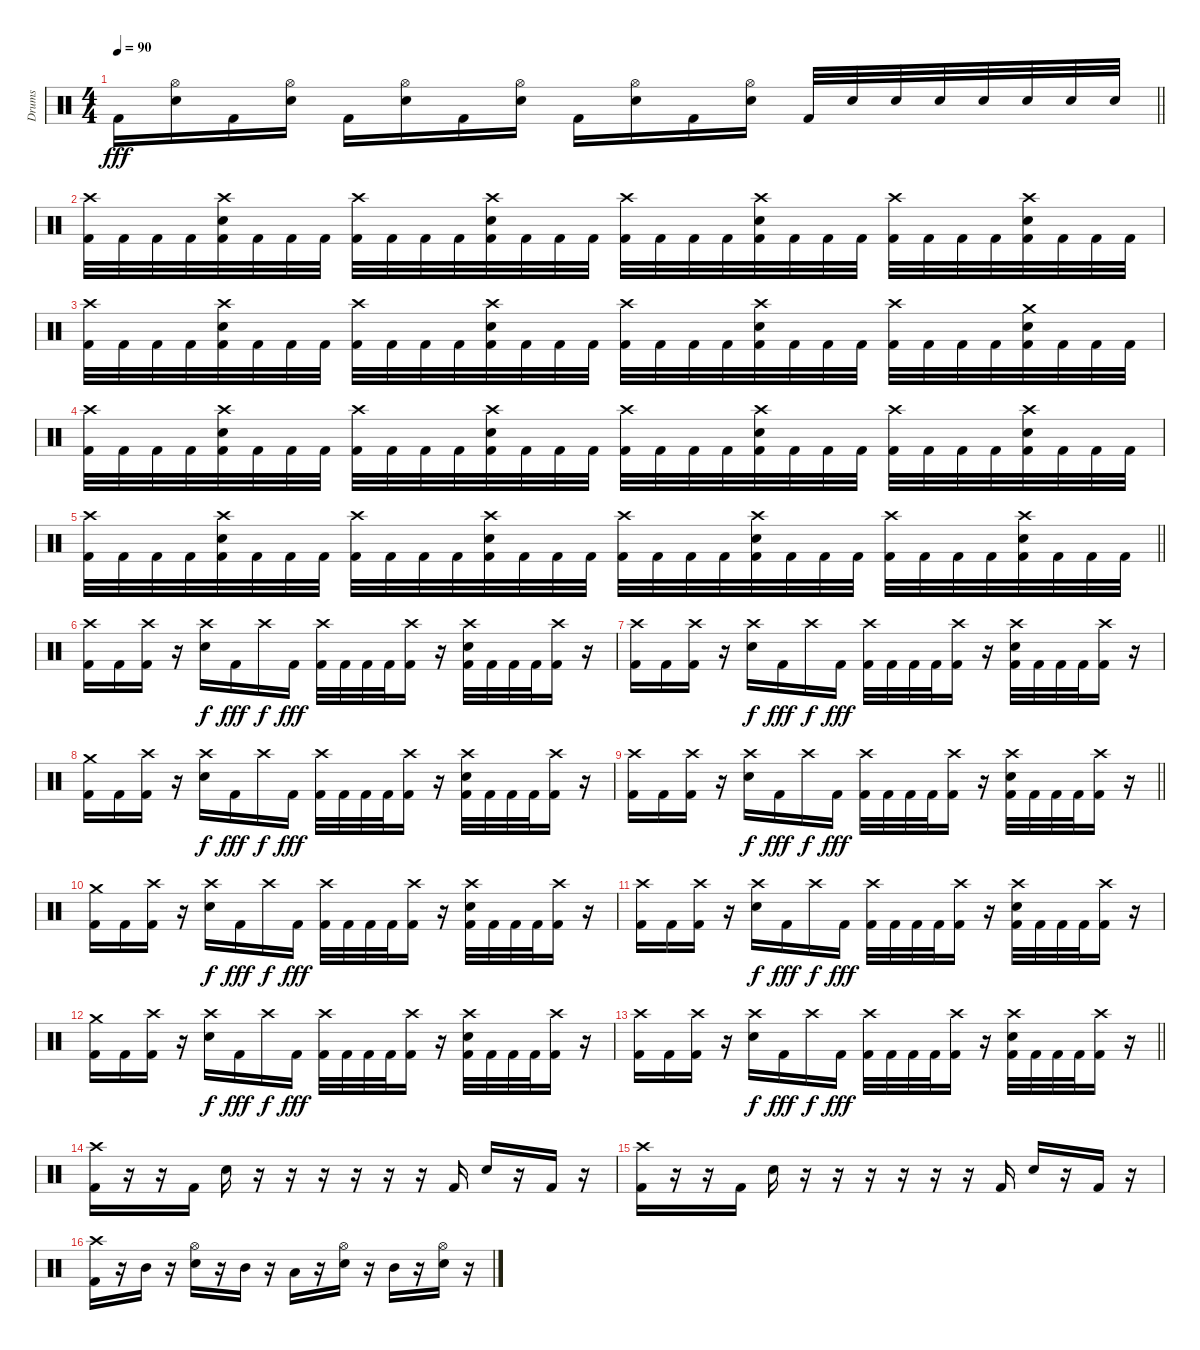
\track ("Drums" "Drums") {instrument percussion}
\staff {score}
\articulation defaults
\ts (4 4)
\tempo 90
\clef neutral
\barLineRight lightlight
\ks c "Kick (hit) 2".16{dy fff}
("Hi-Hat (open)" "Electric Snare (hit)").16 "Kick (hit) 2".16 ("Hi-Hat (open)" "Electric Snare (hit)").16 "Kick (hit) 2".16 ("Hi-Hat (open)" "Electric Snare (hit)").16 "Kick (hit) 2".16 ("Hi-Hat (open)" "Electric Snare (hit)").16 "Kick (hit) 2".16 ("Hi-Hat (open)" "Electric Snare (hit)").16 "Kick (hit) 2".16 ("Hi-Hat (open)" "Electric Snare (hit)").16 "Kick (hit) 2".32 "Electric Snare (hit)".32 "Electric Snare (hit)".32 "Electric Snare (hit)".32 "Electric Snare (hit)".32 "Electric Snare (hit)".32 "Electric Snare (hit)".32 "Electric Snare (hit)".32 |
\section ("" "")
("Crash high (hit)" "Kick (hit) 2").32 "Kick (hit) 2".32 "Kick (hit) 2".32 "Kick (hit) 2".32 ("Crash high (hit)" "Electric Snare (hit)" "Kick (hit) 2").32 "Kick (hit) 2".32 "Kick (hit) 2".32 "Kick (hit) 2".32 ("Crash high (hit)" "Kick (hit) 2").32 "Kick (hit) 2".32 "Kick (hit) 2".32 "Kick (hit) 2".32 ("Crash high (hit)" "Electric Snare (hit)" "Kick (hit) 2").32 "Kick (hit) 2".32 "Kick (hit) 2".32 "Kick (hit) 2".32 ("Crash high (hit)" "Kick (hit) 2").32 "Kick (hit) 2".32 "Kick (hit) 2".32 "Kick (hit) 2".32 ("Crash high (hit)" "Electric Snare (hit)" "Kick (hit) 2").32 "Kick (hit) 2".32 "Kick (hit) 2".32 "Kick (hit) 2".32 ("Crash high (hit)" "Kick (hit) 2").32 "Kick (hit) 2".32 "Kick (hit) 2".32 "Kick (hit) 2".32 ("Crash high (hit)" "Electric Snare (hit)" "Kick (hit) 2").32 "Kick (hit) 2".32 "Kick (hit) 2".32 "Kick (hit) 2".32 |
("Crash high (hit)" "Kick (hit) 2").32 "Kick (hit) 2".32 "Kick (hit) 2".32 "Kick (hit) 2".32 ("Crash high (hit)" "Electric Snare (hit)" "Kick (hit) 2").32 "Kick (hit) 2".32 "Kick (hit) 2".32 "Kick (hit) 2".32 ("Crash high (hit)" "Kick (hit) 2").32 "Kick (hit) 2".32 "Kick (hit) 2".32 "Kick (hit) 2".32 ("Crash high (hit)" "Electric Snare (hit)" "Kick (hit) 2").32 "Kick (hit) 2".32 "Kick (hit) 2".32 "Kick (hit) 2".32 ("Crash high (hit)" "Kick (hit) 2").32 "Kick (hit) 2".32 "Kick (hit) 2".32 "Kick (hit) 2".32 ("Crash high (hit)" "Electric Snare (hit)" "Kick (hit) 2").32 "Kick (hit) 2".32 "Kick (hit) 2".32 "Kick (hit) 2".32 ("Crash high (hit)" "Kick (hit) 2").32 "Kick (hit) 2".32 "Kick (hit) 2".32 "Kick (hit) 2".32 ("Crash medium (hit)" "Electric Snare (hit)" "Kick (hit) 2").32 "Kick (hit) 2".32 "Kick (hit) 2".32 "Kick (hit) 2".32 |
("Crash high (hit)" "Kick (hit) 2").32 "Kick (hit) 2".32 "Kick (hit) 2".32 "Kick (hit) 2".32 ("Crash high (hit)" "Electric Snare (hit)" "Kick (hit) 2").32 "Kick (hit) 2".32 "Kick (hit) 2".32 "Kick (hit) 2".32 ("Crash high (hit)" "Kick (hit) 2").32 "Kick (hit) 2".32 "Kick (hit) 2".32 "Kick (hit) 2".32 ("Crash high (hit)" "Electric Snare (hit)" "Kick (hit) 2").32 "Kick (hit) 2".32 "Kick (hit) 2".32 "Kick (hit) 2".32 ("Crash high (hit)" "Kick (hit) 2").32 "Kick (hit) 2".32 "Kick (hit) 2".32 "Kick (hit) 2".32 ("Crash high (hit)" "Electric Snare (hit)" "Kick (hit) 2").32 "Kick (hit) 2".32 "Kick (hit) 2".32 "Kick (hit) 2".32 ("Crash high (hit)" "Kick (hit) 2").32 "Kick (hit) 2".32 "Kick (hit) 2".32 "Kick (hit) 2".32 ("Crash high (hit)" "Electric Snare (hit)" "Kick (hit) 2").32 "Kick (hit) 2".32 "Kick (hit) 2".32 "Kick (hit) 2".32 |
\barLineRight lightlight
("Crash high (hit)" "Kick (hit) 2").32 "Kick (hit) 2".32 "Kick (hit) 2".32 "Kick (hit) 2".32 ("Crash high (hit)" "Electric Snare (hit)" "Kick (hit) 2").32 "Kick (hit) 2".32 "Kick (hit) 2".32 "Kick (hit) 2".32 ("Crash high (hit)" "Kick (hit) 2").32 "Kick (hit) 2".32 "Kick (hit) 2".32 "Kick (hit) 2".32 ("Crash high (hit)" "Electric Snare (hit)" "Kick (hit) 2").32 "Kick (hit) 2".32 "Kick (hit) 2".32 "Kick (hit) 2".32 ("Crash high (hit)" "Kick (hit) 2").32 "Kick (hit) 2".32 "Kick (hit) 2".32 "Kick (hit) 2".32 ("Crash high (hit)" "Electric Snare (hit)" "Kick (hit) 2").32 "Kick (hit) 2".32 "Kick (hit) 2".32 "Kick (hit) 2".32 ("Crash high (hit)" "Kick (hit) 2").32 "Kick (hit) 2".32 "Kick (hit) 2".32 "Kick (hit) 2".32 ("Crash high (hit)" "Electric Snare (hit)" "Kick (hit) 2").32 "Kick (hit) 2".32 "Kick (hit) 2".32 "Kick (hit) 2".32 |
\section ("" "")
("Crash high (hit)" "Kick (hit) 2").16 "Kick (hit) 2".16 ("Crash high (hit)" "Kick (hit) 2").16 r.16 ("Crash high (hit)" "Electric Snare (hit)").16{dy f} "Kick (hit) 2".16{dy fff} "Crash high (hit)".16{dy f} "Kick (hit) 2".16{dy fff} ("Crash high (hit)" "Kick (hit) 2").32 "Kick (hit) 2".32 "Kick (hit) 2".32 "Kick (hit) 2".32 ("Crash high (hit)" "Kick (hit) 2").16 r.16 ("Crash high (hit)" "Electric Snare (hit)" "Kick (hit) 2").32 "Kick (hit) 2".32 "Kick (hit) 2".32 "Kick (hit) 2".32 ("Crash high (hit)" "Kick (hit) 2").16 r.16 |
("Crash high (hit)" "Kick (hit) 2").16 "Kick (hit) 2".16 ("Crash high (hit)" "Kick (hit) 2").16 r.16 ("Crash high (hit)" "Electric Snare (hit)").16{dy f} "Kick (hit) 2".16{dy fff} "Crash high (hit)".16{dy f} "Kick (hit) 2".16{dy fff} ("Crash high (hit)" "Kick (hit) 2").32 "Kick (hit) 2".32 "Kick (hit) 2".32 "Kick (hit) 2".32 ("Crash high (hit)" "Kick (hit) 2").16 r.16 ("Crash high (hit)" "Electric Snare (hit)" "Kick (hit) 2").32 "Kick (hit) 2".32 "Kick (hit) 2".32 "Kick (hit) 2".32 ("Crash high (hit)" "Kick (hit) 2").16 r.16 |
("Crash medium (hit)" "Kick (hit) 2").16 "Kick (hit) 2".16 ("Crash high (hit)" "Kick (hit) 2").16 r.16 ("Crash high (hit)" "Electric Snare (hit)").16{dy f} "Kick (hit) 2".16{dy fff} "Crash high (hit)".16{dy f} "Kick (hit) 2".16{dy fff} ("Crash high (hit)" "Kick (hit) 2").32 "Kick (hit) 2".32 "Kick (hit) 2".32 "Kick (hit) 2".32 ("Crash high (hit)" "Kick (hit) 2").16 r.16 ("Crash high (hit)" "Electric Snare (hit)" "Kick (hit) 2").32 "Kick (hit) 2".32 "Kick (hit) 2".32 "Kick (hit) 2".32 ("Crash high (hit)" "Kick (hit) 2").16 r.16 |
\barLineRight lightlight
("Crash high (hit)" "Kick (hit) 2").16 "Kick (hit) 2".16 ("Crash high (hit)" "Kick (hit) 2").16 r.16 ("Crash high (hit)" "Electric Snare (hit)").16{dy f} "Kick (hit) 2".16{dy fff} "Crash high (hit)".16{dy f} "Kick (hit) 2".16{dy fff} ("Crash high (hit)" "Kick (hit) 2").32 "Kick (hit) 2".32 "Kick (hit) 2".32 "Kick (hit) 2".32 ("Crash high (hit)" "Kick (hit) 2").16 r.16 ("Crash high (hit)" "Electric Snare (hit)" "Kick (hit) 2").32 "Kick (hit) 2".32 "Kick (hit) 2".32 "Kick (hit) 2".32 ("Crash high (hit)" "Kick (hit) 2").16 r.16 |
("Crash medium (hit)" "Kick (hit) 2").16 "Kick (hit) 2".16 ("Crash high (hit)" "Kick (hit) 2").16 r.16 ("Crash high (hit)" "Electric Snare (hit)").16{dy f} "Kick (hit) 2".16{dy fff} "Crash high (hit)".16{dy f} "Kick (hit) 2".16{dy fff} ("Crash high (hit)" "Kick (hit) 2").32 "Kick (hit) 2".32 "Kick (hit) 2".32 "Kick (hit) 2".32 ("Crash high (hit)" "Kick (hit) 2").16 r.16 ("Crash high (hit)" "Electric Snare (hit)" "Kick (hit) 2").32 "Kick (hit) 2".32 "Kick (hit) 2".32 "Kick (hit) 2".32 ("Crash high (hit)" "Kick (hit) 2").16 r.16 |
("Crash high (hit)" "Kick (hit) 2").16 "Kick (hit) 2".16 ("Crash high (hit)" "Kick (hit) 2").16 r.16 ("Crash high (hit)" "Electric Snare (hit)").16{dy f} "Kick (hit) 2".16{dy fff} "Crash high (hit)".16{dy f} "Kick (hit) 2".16{dy fff} ("Crash high (hit)" "Kick (hit) 2").32 "Kick (hit) 2".32 "Kick (hit) 2".32 "Kick (hit) 2".32 ("Crash high (hit)" "Kick (hit) 2").16 r.16 ("Crash high (hit)" "Electric Snare (hit)" "Kick (hit) 2").32 "Kick (hit) 2".32 "Kick (hit) 2".32 "Kick (hit) 2".32 ("Crash high (hit)" "Kick (hit) 2").16 r.16 |
("Crash medium (hit)" "Kick (hit) 2").16 "Kick (hit) 2".16 ("Crash high (hit)" "Kick (hit) 2").16 r.16 ("Crash high (hit)" "Electric Snare (hit)").16{dy f} "Kick (hit) 2".16{dy fff} "Crash high (hit)".16{dy f} "Kick (hit) 2".16{dy fff} ("Crash high (hit)" "Kick (hit) 2").32 "Kick (hit) 2".32 "Kick (hit) 2".32 "Kick (hit) 2".32 ("Crash high (hit)" "Kick (hit) 2").16 r.16 ("Crash high (hit)" "Electric Snare (hit)" "Kick (hit) 2").32 "Kick (hit) 2".32 "Kick (hit) 2".32 "Kick (hit) 2".32 ("Crash high (hit)" "Kick (hit) 2").16 r.16 |
\barLineRight lightlight
("Crash high (hit)" "Kick (hit) 2").16 "Kick (hit) 2".16 ("Crash high (hit)" "Kick (hit) 2").16 r.16 ("Crash high (hit)" "Electric Snare (hit)").16{dy f} "Kick (hit) 2".16{dy fff} "Crash high (hit)".16{dy f} "Kick (hit) 2".16{dy fff} ("Crash high (hit)" "Kick (hit) 2").32 "Kick (hit) 2".32 "Kick (hit) 2".32 "Kick (hit) 2".32 ("Crash high (hit)" "Kick (hit) 2").16 r.16 ("Crash high (hit)" "Electric Snare (hit)" "Kick (hit) 2").32 "Kick (hit) 2".32 "Kick (hit) 2".32 "Kick (hit) 2".32 ("Crash high (hit)" "Kick (hit) 2").16 r.16 |
\section ("" "")
("Crash high (hit)" "Kick (hit) 2").16 r.16 r.16 "Kick (hit) 2".16 "Electric Snare (hit)".16 r.16 r.16 r.16 r.16 r.16 r.16 "Kick (hit) 2".16 "Electric Snare (hit)".16 r.16 "Kick (hit) 2".16 r.16 |
("Crash high (hit)" "Kick (hit) 2").16 r.16 r.16 "Kick (hit) 2".16 "Electric Snare (hit)".16 r.16 r.16 r.16 r.16 r.16 r.16 "Kick (hit) 2".16 "Electric Snare (hit)".16 r.16 "Kick (hit) 2".16 r.16 |
("Crash high (hit)" "Kick (hit) 2").16 r.16 "Mid Tom (hit)".16 r.16 ("Hi-Hat (open)" "Electric Snare (hit)").16 r.16 "Mid Tom (hit)".16 r.16 "Low Floor Tom (hit)".16 r.16 ("Hi-Hat (open)" "Electric Snare (hit)").16 r.16 "Mid Tom (hit)".16 r.16 ("Hi-Hat (open)" "Electric Snare (hit)").16 r.16
